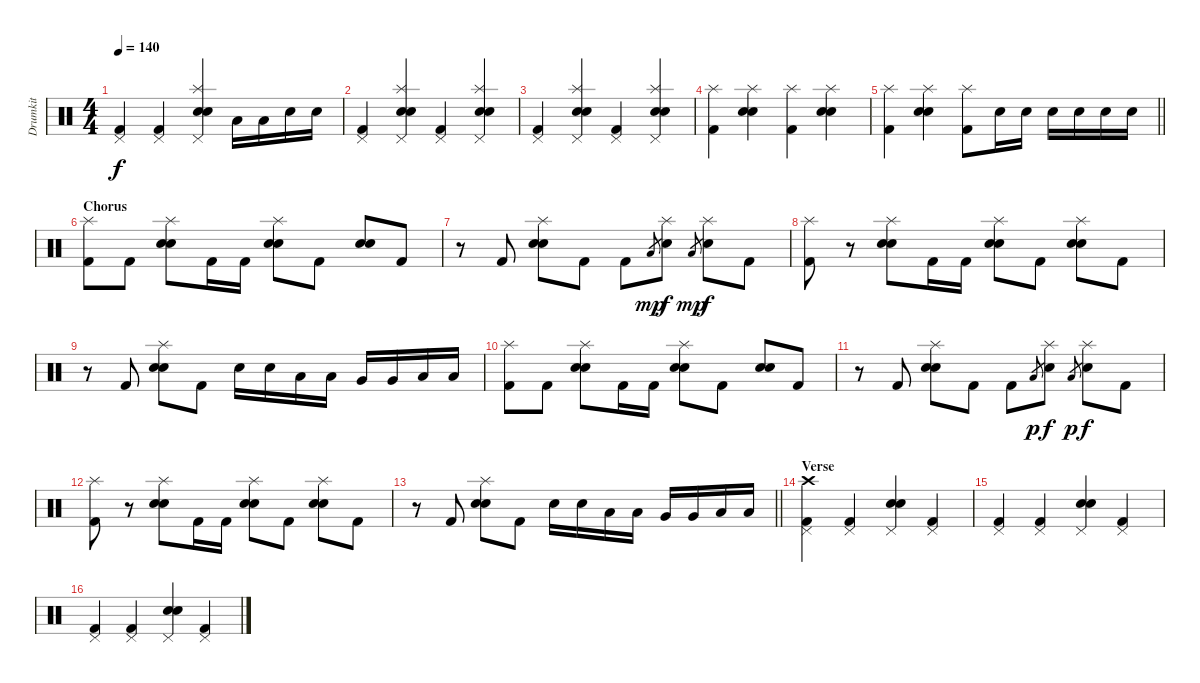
\track ("Drumkit" "Drumkit") {instrument percussion}
\staff {score}
\articulation defaults
\ts (4 4)
\tempo 140
\clef neutral
\ks c
("Pedal Hi-Hat (hit)" "Kick (hit) 2").4{dy f} ("Pedal Hi-Hat (hit)" "Kick (hit) 2").4 ("Splash (hit)" "Electric Snare (hit)" "Snare (hit) 2" "Pedal Hi-Hat (hit)").4 "Low Tom (hit)".16 "Low Tom (hit)".16 "Electric Snare (hit)".16 "Electric Snare (hit)".16 |
("Pedal Hi-Hat (hit)" "Kick (hit) 2").4 ("Splash (hit)" "Electric Snare (hit)" "Snare (hit) 2" "Pedal Hi-Hat (hit)").4 ("Pedal Hi-Hat (hit)" "Kick (hit) 2").4 ("Splash (hit)" "Electric Snare (hit)" "Snare (hit) 2" "Pedal Hi-Hat (hit)").4 |
("Pedal Hi-Hat (hit)" "Kick (hit) 2").4 ("Splash (hit)" "Electric Snare (hit)" "Snare (hit) 2" "Pedal Hi-Hat (hit)").4 ("Pedal Hi-Hat (hit)" "Kick (hit) 2").4 ("Splash (hit)" "Electric Snare (hit)" "Snare (hit) 2" "Pedal Hi-Hat (hit)").4 |
("Splash (hit)" "Kick (hit) 2").4 ("Splash (hit)" "Electric Snare (hit)" "Snare (hit) 2").4 ("Splash (hit)" "Kick (hit) 2").4 ("Splash (hit)" "Electric Snare (hit)" "Snare (hit) 2").4 |
\barLineRight lightlight
("Splash (hit)" "Kick (hit) 2").4 ("Splash (hit)" "Electric Snare (hit)" "Snare (hit) 2").4 ("Splash (hit)" "Kick (hit) 2").8 "Electric Snare (hit)".16 "Electric Snare (hit)".16 "Electric Snare (hit)".16 "Electric Snare (hit)".16 "Electric Snare (hit)".16 "Electric Snare (hit)".16 |
\section ("" "Chorus")
("Splash (hit)" "Kick (hit) 2").8 "Kick (hit) 2".8 ("Splash (hit)" "Electric Snare (hit)" "Snare (hit) 2").8 "Kick (hit) 2".16 "Kick (hit) 2".16 ("Splash (hit)" "Electric Snare (hit)" "Snare (hit) 2").8 "Kick (hit) 2".8 ("Electric Snare (hit)" "Snare (hit) 2").8 "Kick (hit) 2".8 |
r.8 "Kick (hit) 2".8 ("Splash (hit)" "Electric Snare (hit)" "Snare (hit) 2").8 "Kick (hit) 2".8 "Kick (hit) 2".8 "Low Tom (hit)".8{gr dy mp} ("Splash (hit)" "Electric Snare (hit)").8{dy f} "Low Tom (hit)".8{gr dy mp} ("Splash (hit)" "Electric Snare (hit)").8{dy f} "Kick (hit) 2".8 |
("Splash (hit)" "Kick (hit) 2").8 r.8 ("Splash (hit)" "Electric Snare (hit)" "Snare (hit) 2").8 "Kick (hit) 2".16 "Kick (hit) 2".16 ("Splash (hit)" "Electric Snare (hit)" "Snare (hit) 2").8 "Kick (hit) 2".8 ("Splash (hit)" "Electric Snare (hit)" "Snare (hit) 2").8 "Kick (hit) 2".8 |
r.8 "Kick (hit) 2".8 ("Splash (hit)" "Electric Snare (hit)" "Snare (hit) 2").8 "Kick (hit) 2".8 "Electric Snare (hit)".16 "Electric Snare (hit)".16 "Low Tom (hit)".16 "Low Tom (hit)".16 "Very Low Tom (hit)".16 "Very Low Tom (hit)".16 "Low Floor Tom (hit)".16 "Low Floor Tom (hit)".16 |
("Splash (hit)" "Kick (hit) 2").8 "Kick (hit) 2".8 ("Splash (hit)" "Electric Snare (hit)" "Snare (hit) 2").8 "Kick (hit) 2".16 "Kick (hit) 2".16 ("Splash (hit)" "Electric Snare (hit)" "Snare (hit) 2").8 "Kick (hit) 2".8 ("Electric Snare (hit)" "Snare (hit) 2").8 "Kick (hit) 2".8 |
r.8 "Kick (hit) 2".8 ("Splash (hit)" "Electric Snare (hit)" "Snare (hit) 2").8 "Kick (hit) 2".8 "Kick (hit) 2".8 "Low Tom (hit)".8{gr dy p} ("Splash (hit)" "Electric Snare (hit)").8{dy f} "Low Tom (hit)".8{gr dy p} ("Splash (hit)" "Electric Snare (hit)").8{dy f} "Kick (hit) 2".8 |
("Splash (hit)" "Kick (hit) 2").8 r.8 ("Splash (hit)" "Electric Snare (hit)" "Snare (hit) 2").8 "Kick (hit) 2".16 "Kick (hit) 2".16 ("Splash (hit)" "Electric Snare (hit)" "Snare (hit) 2").8 "Kick (hit) 2".8 ("Splash (hit)" "Electric Snare (hit)" "Snare (hit) 2").8 "Kick (hit) 2".8 |
\barLineRight lightlight
r.8 "Kick (hit) 2".8 ("Splash (hit)" "Electric Snare (hit)" "Snare (hit) 2").8 "Kick (hit) 2".8 "Electric Snare (hit)".16 "Electric Snare (hit)".16 "Low Tom (hit)".16 "Low Tom (hit)".16 "Very Low Tom (hit)".16 "Very Low Tom (hit)".16 "Low Floor Tom (hit)".16 "Low Floor Tom (hit)".16 |
\section ("" "Verse")
("Crash high (hit)" "Pedal Hi-Hat (hit)" "Kick (hit) 2").4 ("Pedal Hi-Hat (hit)" "Kick (hit) 2").4 ("Electric Snare (hit)" "Snare (hit) 2" "Pedal Hi-Hat (hit)").4 ("Pedal Hi-Hat (hit)" "Kick (hit) 2").4 |
("Pedal Hi-Hat (hit)" "Kick (hit) 2").4 ("Pedal Hi-Hat (hit)" "Kick (hit) 2").4 ("Electric Snare (hit)" "Snare (hit) 2" "Pedal Hi-Hat (hit)").4 ("Pedal Hi-Hat (hit)" "Kick (hit) 2").4 |
("Pedal Hi-Hat (hit)" "Kick (hit) 2").4 ("Pedal Hi-Hat (hit)" "Kick (hit) 2").4 ("Electric Snare (hit)" "Snare (hit) 2" "Pedal Hi-Hat (hit)").4 ("Pedal Hi-Hat (hit)" "Kick (hit) 2").4
